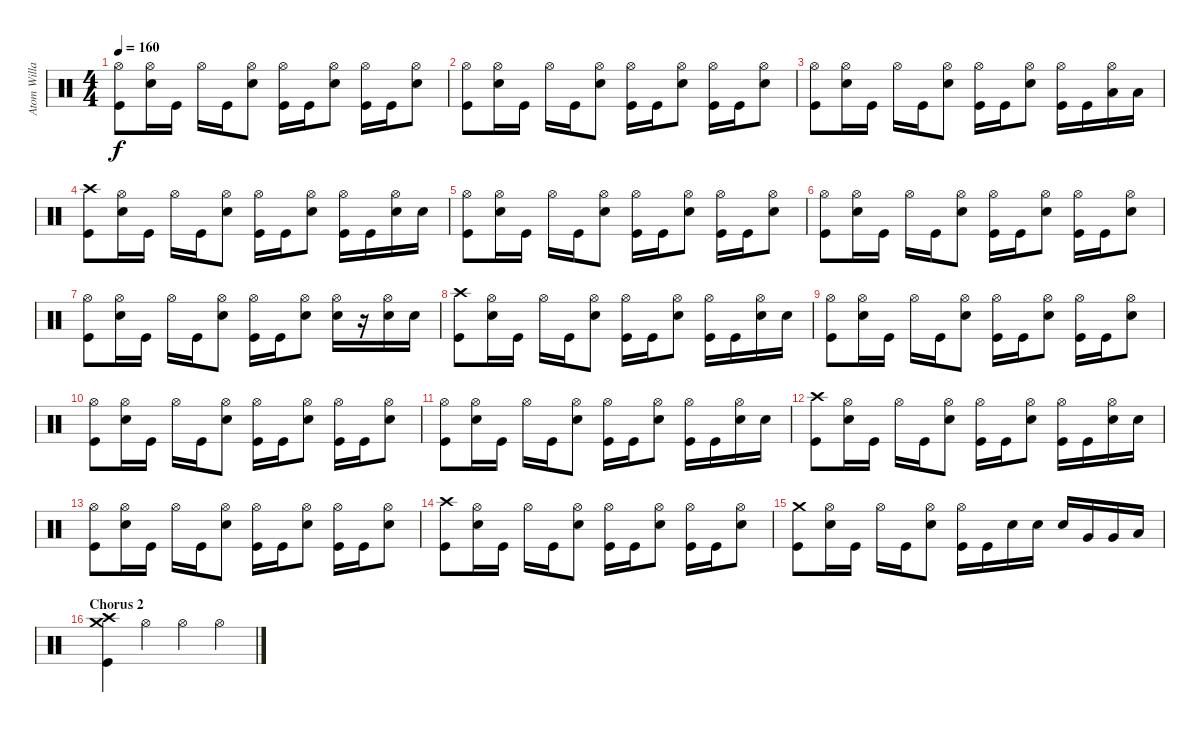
\track ("Atom Willard - Drums" "Atom Willa") {instrument percussion}
\staff {score}
\articulation defaults
\ts (4 4)
\tempo 160
\clef neutral
\ks c
("Hi-Hat (open)" "Kick (hit)").8{dy f} ("Hi-Hat (open)" "Electric Snare (hit)").16 "Kick (hit)".16 "Hi-Hat (open)".16 "Kick (hit)".16 ("Hi-Hat (open)" "Electric Snare (hit)").8 ("Hi-Hat (open)" "Kick (hit)").16 "Kick (hit)".16 ("Hi-Hat (open)" "Electric Snare (hit)").8 ("Hi-Hat (open)" "Kick (hit)").16 "Kick (hit)".16 ("Hi-Hat (open)" "Electric Snare (hit)").8 |
("Hi-Hat (open)" "Kick (hit)").8 ("Hi-Hat (open)" "Electric Snare (hit)").16 "Kick (hit)".16 "Hi-Hat (open)".16 "Kick (hit)".16 ("Hi-Hat (open)" "Electric Snare (hit)").8 ("Hi-Hat (open)" "Kick (hit)").16 "Kick (hit)".16 ("Hi-Hat (open)" "Electric Snare (hit)").8 ("Hi-Hat (open)" "Kick (hit)").16 "Kick (hit)".16 ("Hi-Hat (open)" "Electric Snare (hit)").8 |
("Hi-Hat (open)" "Kick (hit)").8 ("Hi-Hat (open)" "Electric Snare (hit)").16 "Kick (hit)".16 "Hi-Hat (open)".16 "Kick (hit)".16 ("Hi-Hat (open)" "Electric Snare (hit)").8 ("Hi-Hat (open)" "Kick (hit)").16 "Kick (hit)".16 ("Hi-Hat (open)" "Electric Snare (hit)").8 ("Hi-Hat (open)" "Kick (hit)").16 "Kick (hit)".16 ("Hi-Hat (open)" "Low Floor Tom (hit)").16 "Low Floor Tom (hit)".16 |
("Crash high (hit)" "Kick (hit)").8 ("Hi-Hat (open)" "Electric Snare (hit)").16 "Kick (hit)".16 "Hi-Hat (open)".16 "Kick (hit)".16 ("Hi-Hat (open)" "Electric Snare (hit)").8 ("Hi-Hat (open)" "Kick (hit)").16 "Kick (hit)".16 ("Hi-Hat (open)" "Electric Snare (hit)").8 ("Hi-Hat (open)" "Kick (hit)").16 "Kick (hit)".16 ("Hi-Hat (open)" "Electric Snare (hit)").16 "Electric Snare (hit)".16 |
("Hi-Hat (open)" "Kick (hit)").8 ("Hi-Hat (open)" "Electric Snare (hit)").16 "Kick (hit)".16 "Hi-Hat (open)".16 "Kick (hit)".16 ("Hi-Hat (open)" "Electric Snare (hit)").8 ("Hi-Hat (open)" "Kick (hit)").16 "Kick (hit)".16 ("Hi-Hat (open)" "Electric Snare (hit)").8 ("Hi-Hat (open)" "Kick (hit)").16 "Kick (hit)".16 ("Hi-Hat (open)" "Electric Snare (hit)").8 |
("Hi-Hat (open)" "Kick (hit)").8 ("Hi-Hat (open)" "Electric Snare (hit)").16 "Kick (hit)".16 "Hi-Hat (open)".16 "Kick (hit)".16 ("Hi-Hat (open)" "Electric Snare (hit)").8 ("Hi-Hat (open)" "Kick (hit)").16 "Kick (hit)".16 ("Hi-Hat (open)" "Electric Snare (hit)").8 ("Hi-Hat (open)" "Kick (hit)").16 "Kick (hit)".16 ("Hi-Hat (open)" "Electric Snare (hit)").8 |
("Hi-Hat (open)" "Kick (hit)").8 ("Hi-Hat (open)" "Electric Snare (hit)").16 "Kick (hit)".16 "Hi-Hat (open)".16 "Kick (hit)".16 ("Hi-Hat (open)" "Electric Snare (hit)").8 ("Hi-Hat (open)" "Kick (hit)").16 "Kick (hit)".16 ("Hi-Hat (open)" "Electric Snare (hit)").8 ("Hi-Hat (open)" "Electric Snare (hit)").16 r.16 ("Hi-Hat (open)" "Electric Snare (hit)").16 "Electric Snare (hit)".16 |
("Crash high (hit)" "Kick (hit)").8 ("Hi-Hat (open)" "Electric Snare (hit)").16 "Kick (hit)".16 "Hi-Hat (open)".16 "Kick (hit)".16 ("Hi-Hat (open)" "Electric Snare (hit)").8 ("Hi-Hat (open)" "Kick (hit)").16 "Kick (hit)".16 ("Hi-Hat (open)" "Electric Snare (hit)").8 ("Hi-Hat (open)" "Kick (hit)").16 "Kick (hit)".16 ("Hi-Hat (open)" "Electric Snare (hit)").16 "Electric Snare (hit)".16 |
("Hi-Hat (open)" "Kick (hit)").8 ("Hi-Hat (open)" "Electric Snare (hit)").16 "Kick (hit)".16 "Hi-Hat (open)".16 "Kick (hit)".16 ("Hi-Hat (open)" "Electric Snare (hit)").8 ("Hi-Hat (open)" "Kick (hit)").16 "Kick (hit)".16 ("Hi-Hat (open)" "Electric Snare (hit)").8 ("Hi-Hat (open)" "Kick (hit)").16 "Kick (hit)".16 ("Hi-Hat (open)" "Electric Snare (hit)").8 |
("Hi-Hat (open)" "Kick (hit)").8 ("Hi-Hat (open)" "Electric Snare (hit)").16 "Kick (hit)".16 "Hi-Hat (open)".16 "Kick (hit)".16 ("Hi-Hat (open)" "Electric Snare (hit)").8 ("Hi-Hat (open)" "Kick (hit)").16 "Kick (hit)".16 ("Hi-Hat (open)" "Electric Snare (hit)").8 ("Hi-Hat (open)" "Kick (hit)").16 "Kick (hit)".16 ("Hi-Hat (open)" "Electric Snare (hit)").8 |
("Hi-Hat (open)" "Kick (hit)").8 ("Hi-Hat (open)" "Electric Snare (hit)").16 "Kick (hit)".16 "Hi-Hat (open)".16 "Kick (hit)".16 ("Hi-Hat (open)" "Electric Snare (hit)").8 ("Hi-Hat (open)" "Kick (hit)").16 "Kick (hit)".16 ("Hi-Hat (open)" "Electric Snare (hit)").8 ("Hi-Hat (open)" "Kick (hit)").16 "Kick (hit)".16 ("Hi-Hat (open)" "Electric Snare (hit)").16 "Electric Snare (hit)".16 |
("Crash high (hit)" "Kick (hit)").8 ("Hi-Hat (open)" "Electric Snare (hit)").16 "Kick (hit)".16 "Hi-Hat (open)".16 "Kick (hit)".16 ("Hi-Hat (open)" "Electric Snare (hit)").8 ("Hi-Hat (open)" "Kick (hit)").16 "Kick (hit)".16 ("Hi-Hat (open)" "Electric Snare (hit)").8 ("Hi-Hat (open)" "Kick (hit)").16 "Kick (hit)".16 ("Hi-Hat (open)" "Electric Snare (hit)").16 "Electric Snare (hit)".16 |
("Hi-Hat (open)" "Kick (hit)").8 ("Hi-Hat (open)" "Electric Snare (hit)").16 "Kick (hit)".16 "Hi-Hat (open)".16 "Kick (hit)".16 ("Hi-Hat (open)" "Electric Snare (hit)").8 ("Hi-Hat (open)" "Kick (hit)").16 "Kick (hit)".16 ("Hi-Hat (open)" "Electric Snare (hit)").8 ("Hi-Hat (open)" "Kick (hit)").16 "Kick (hit)".16 ("Hi-Hat (open)" "Electric Snare (hit)").8 |
("Crash high (hit)" "Kick (hit)").8 ("Hi-Hat (open)" "Electric Snare (hit)").16 "Kick (hit)".16 "Hi-Hat (open)".16 "Kick (hit)".16 ("Hi-Hat (open)" "Electric Snare (hit)").8 ("Hi-Hat (open)" "Kick (hit)").16 "Kick (hit)".16 ("Hi-Hat (open)" "Electric Snare (hit)").8 ("Hi-Hat (open)" "Kick (hit)").16 "Kick (hit)".16 ("Hi-Hat (open)" "Electric Snare (hit)").8 |
("Crash medium (hit)" "Kick (hit)").8 ("Hi-Hat (open)" "Electric Snare (hit)").16 "Kick (hit)".16 "Hi-Hat (open)".16 "Kick (hit)".16 ("Hi-Hat (open)" "Electric Snare (hit)").8 ("Hi-Hat (open)" "Kick (hit)").16 "Kick (hit)".16 "Electric Snare (hit)".16 "Electric Snare (hit)".16 "Electric Snare (hit)".16 "Very Low Tom (hit)".16 "Very Low Tom (hit)".16 "Low Floor Tom (hit)".16 |
\section ("" "Chorus 2")
("Crash medium (hit)" "Crash high (hit)" "Kick (hit)").4 "Hi-Hat (open)".4 "Hi-Hat (open)".4 "Hi-Hat (open)".4
